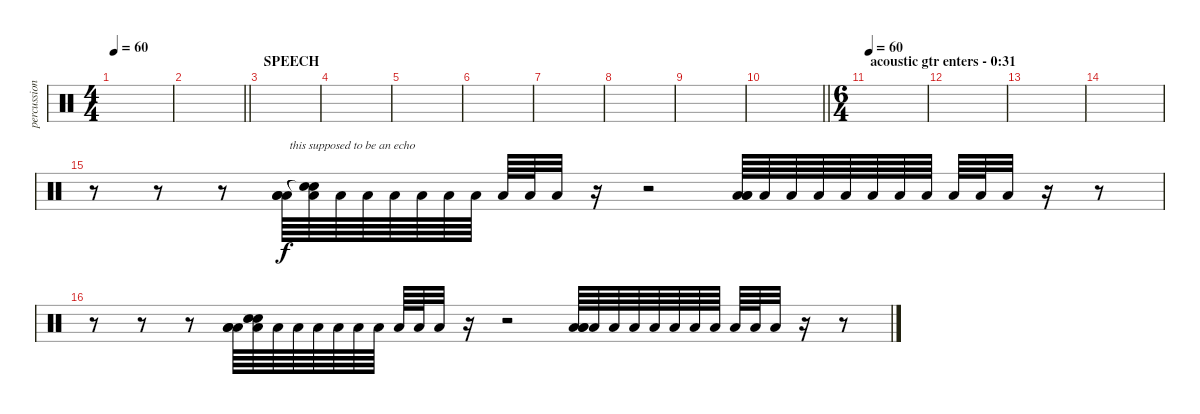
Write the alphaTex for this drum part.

\track ("percussion" "percussion") {instrument percussion}
\staff {score}
\articulation defaults
\ts (4 4)
\tempo 60
\tempo 70
\tempo 60
\clef neutral
\ks c
|
\barLineRight lightlight
|
\section ("" "SPEECH")
|
|
|
|
|
|
|
\barLineRight lightlight
|
\ts (6 4)
\section ("" "acoustic gtr enters - 0:31")
\tempo 60
|
|
|
|
r.8 r.8 r.8 ("Low Floor Tom (hit)" "Low Floor Tom (hit)" "Low Floor Tom (hit)").64{txt " this supposed to be an echo" volume 0} ("Snare (hit)"{t} "Snare (hit)"{t} "Low Floor Tom (hit)").64 "Low Floor Tom (hit)".64 "Low Floor Tom (hit)".64 "Low Floor Tom (hit)".64 "Low Floor Tom (hit)".64 "Low Floor Tom (hit)".64 "Low Floor Tom (hit)".64 "Low Floor Tom (hit)".64 "Low Floor Tom (hit)".64 "Low Floor Tom (hit)".32 r.16 r.2{volume 11} ("Low Floor Tom (hit)" "Low Floor Tom (hit)" "Low Floor Tom (hit)").64{volume 0} "Low Floor Tom (hit)".64 "Low Floor Tom (hit)".64 "Low Floor Tom (hit)".64 "Low Floor Tom (hit)".64 "Low Floor Tom (hit)".64 "Low Floor Tom (hit)".64 "Low Floor Tom (hit)".64 "Low Floor Tom (hit)".64 "Low Floor Tom (hit)".64 "Low Floor Tom (hit)".32 r.16 r.8{volume 11} |
r.8 r.8 r.8 ("Low Floor Tom (hit)" "Low Floor Tom (hit)" "Low Floor Tom (hit)").64{volume 0} ("Snare (hit)"{t} "Snare (hit)"{t} "Low Floor Tom (hit)").64 "Low Floor Tom (hit)".64 "Low Floor Tom (hit)".64 "Low Floor Tom (hit)".64 "Low Floor Tom (hit)".64 "Low Floor Tom (hit)".64 "Low Floor Tom (hit)".64 "Low Floor Tom (hit)".64 "Low Floor Tom (hit)".64 "Low Floor Tom (hit)".32 r.16 r.2{volume 11} ("Low Floor Tom (hit)" "Low Floor Tom (hit)" "Low Floor Tom (hit)").64{volume 0} "Low Floor Tom (hit)".64 "Low Floor Tom (hit)".64 "Low Floor Tom (hit)".64 "Low Floor Tom (hit)".64 "Low Floor Tom (hit)".64 "Low Floor Tom (hit)".64 "Low Floor Tom (hit)".64 "Low Floor Tom (hit)".64 "Low Floor Tom (hit)".64 "Low Floor Tom (hit)".32 r.16 r.8{volume 11}
